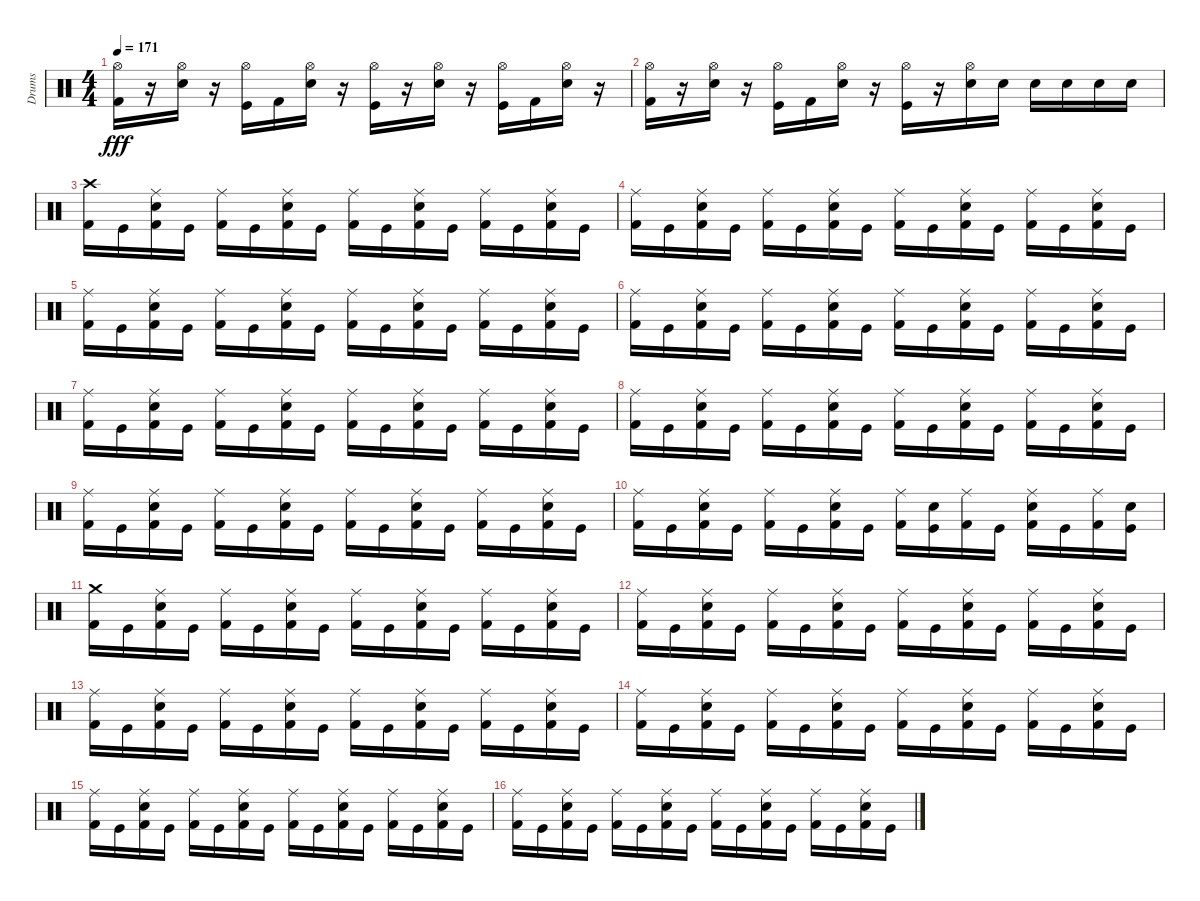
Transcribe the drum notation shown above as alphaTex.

\track ("Drums" "Drums") {instrument percussion}
\staff {score}
\articulation defaults
\ts (4 4)
\tempo 171
\clef neutral
\ks c
("Hi-Hat (open)" "Kick (hit) 2").16{dy fff} r.16 ("Hi-Hat (open)" "Electric Snare (hit)").16 r.16 ("Hi-Hat (open)" "Kick (hit)").16 "Kick (hit) 2".16 ("Hi-Hat (open)" "Electric Snare (hit)").16 r.16 ("Hi-Hat (open)" "Kick (hit)").16 r.16 ("Hi-Hat (open)" "Electric Snare (hit)").16 r.16 ("Hi-Hat (open)" "Kick (hit)").16 "Kick (hit) 2".16 ("Hi-Hat (open)" "Electric Snare (hit)").16 r.16 |
("Hi-Hat (open)" "Kick (hit) 2").16 r.16 ("Hi-Hat (open)" "Electric Snare (hit)").16 r.16 ("Hi-Hat (open)" "Kick (hit)").16 "Kick (hit) 2".16 ("Hi-Hat (open)" "Electric Snare (hit)").16 r.16 ("Hi-Hat (open)" "Kick (hit)").16 r.16 ("Hi-Hat (open)" "Electric Snare (hit)").16 "Electric Snare (hit)".16 "Electric Snare (hit)".16 "Electric Snare (hit)".16 "Electric Snare (hit)".16 "Electric Snare (hit)".16 |
("Crash high (hit)" "Kick (hit) 2").16 "Kick (hit)".16 ("Ride (middle)" "Electric Snare (hit)" "Kick (hit) 2").16 "Kick (hit)".16 ("Ride (middle)" "Kick (hit) 2").16 "Kick (hit)".16 ("Ride (middle)" "Electric Snare (hit)" "Kick (hit) 2").16 "Kick (hit)".16 ("Ride (middle)" "Kick (hit) 2").16 "Kick (hit)".16 ("Ride (middle)" "Electric Snare (hit)" "Kick (hit) 2").16 "Kick (hit)".16 ("Ride (middle)" "Kick (hit) 2").16 "Kick (hit)".16 ("Ride (middle)" "Electric Snare (hit)" "Kick (hit) 2").16 "Kick (hit)".16 |
("Ride (middle)" "Kick (hit) 2").16 "Kick (hit)".16 ("Ride (middle)" "Electric Snare (hit)" "Kick (hit) 2").16 "Kick (hit)".16 ("Ride (middle)" "Kick (hit) 2").16 "Kick (hit)".16 ("Ride (middle)" "Electric Snare (hit)" "Kick (hit) 2").16 "Kick (hit)".16 ("Ride (middle)" "Kick (hit) 2").16 "Kick (hit)".16 ("Ride (middle)" "Electric Snare (hit)" "Kick (hit) 2").16 "Kick (hit)".16 ("Ride (middle)" "Kick (hit) 2").16 "Kick (hit)".16 ("Ride (middle)" "Electric Snare (hit)" "Kick (hit) 2").16 "Kick (hit)".16 |
("Ride (middle)" "Kick (hit) 2").16 "Kick (hit)".16 ("Ride (middle)" "Electric Snare (hit)" "Kick (hit) 2").16 "Kick (hit)".16 ("Ride (middle)" "Kick (hit) 2").16 "Kick (hit)".16 ("Ride (middle)" "Electric Snare (hit)" "Kick (hit) 2").16 "Kick (hit)".16 ("Ride (middle)" "Kick (hit) 2").16 "Kick (hit)".16 ("Ride (middle)" "Electric Snare (hit)" "Kick (hit) 2").16 "Kick (hit)".16 ("Ride (middle)" "Kick (hit) 2").16 "Kick (hit)".16 ("Ride (middle)" "Electric Snare (hit)" "Kick (hit) 2").16 "Kick (hit)".16 |
("Ride (middle)" "Kick (hit) 2").16 "Kick (hit)".16 ("Ride (middle)" "Electric Snare (hit)" "Kick (hit) 2").16 "Kick (hit)".16 ("Ride (middle)" "Kick (hit) 2").16 "Kick (hit)".16 ("Ride (middle)" "Electric Snare (hit)" "Kick (hit) 2").16 "Kick (hit)".16 ("Ride (middle)" "Kick (hit) 2").16 "Kick (hit)".16 ("Ride (middle)" "Electric Snare (hit)" "Kick (hit) 2").16 "Kick (hit)".16 ("Ride (middle)" "Kick (hit) 2").16 "Kick (hit)".16 ("Ride (middle)" "Electric Snare (hit)" "Kick (hit) 2").16 "Kick (hit)".16 |
("Ride (middle)" "Kick (hit) 2").16 "Kick (hit)".16 ("Ride (middle)" "Electric Snare (hit)" "Kick (hit) 2").16 "Kick (hit)".16 ("Ride (middle)" "Kick (hit) 2").16 "Kick (hit)".16 ("Ride (middle)" "Electric Snare (hit)" "Kick (hit) 2").16 "Kick (hit)".16 ("Ride (middle)" "Kick (hit) 2").16 "Kick (hit)".16 ("Ride (middle)" "Electric Snare (hit)" "Kick (hit) 2").16 "Kick (hit)".16 ("Ride (middle)" "Kick (hit) 2").16 "Kick (hit)".16 ("Ride (middle)" "Electric Snare (hit)" "Kick (hit) 2").16 "Kick (hit)".16 |
("Ride (middle)" "Kick (hit) 2").16 "Kick (hit)".16 ("Ride (middle)" "Electric Snare (hit)" "Kick (hit) 2").16 "Kick (hit)".16 ("Ride (middle)" "Kick (hit) 2").16 "Kick (hit)".16 ("Ride (middle)" "Electric Snare (hit)" "Kick (hit) 2").16 "Kick (hit)".16 ("Ride (middle)" "Kick (hit) 2").16 "Kick (hit)".16 ("Ride (middle)" "Electric Snare (hit)" "Kick (hit) 2").16 "Kick (hit)".16 ("Ride (middle)" "Kick (hit) 2").16 "Kick (hit)".16 ("Ride (middle)" "Electric Snare (hit)" "Kick (hit) 2").16 "Kick (hit)".16 |
("Ride (middle)" "Kick (hit) 2").16 "Kick (hit)".16 ("Ride (middle)" "Electric Snare (hit)" "Kick (hit) 2").16 "Kick (hit)".16 ("Ride (middle)" "Kick (hit) 2").16 "Kick (hit)".16 ("Ride (middle)" "Electric Snare (hit)" "Kick (hit) 2").16 "Kick (hit)".16 ("Ride (middle)" "Kick (hit) 2").16 "Kick (hit)".16 ("Ride (middle)" "Electric Snare (hit)" "Kick (hit) 2").16 "Kick (hit)".16 ("Ride (middle)" "Kick (hit) 2").16 "Kick (hit)".16 ("Ride (middle)" "Electric Snare (hit)" "Kick (hit) 2").16 "Kick (hit)".16 |
("Ride (middle)" "Kick (hit) 2").16 "Kick (hit)".16 ("Ride (middle)" "Electric Snare (hit)" "Kick (hit) 2").16 "Kick (hit)".16 ("Ride (middle)" "Kick (hit) 2").16 "Kick (hit)".16 ("Ride (middle)" "Electric Snare (hit)" "Kick (hit) 2").16 "Kick (hit)".16 ("Ride (middle)" "Kick (hit) 2").16 ("Electric Snare (hit)" "Kick (hit)").16 ("Ride (middle)" "Kick (hit) 2").16 "Kick (hit)".16 ("Ride (middle)" "Electric Snare (hit)" "Kick (hit) 2").16 "Kick (hit)".16 ("Ride (middle)" "Kick (hit) 2").16 ("Electric Snare (hit)" "Kick (hit)").16 |
("Crash medium (hit)" "Kick (hit) 2").16 "Kick (hit)".16 ("Ride (middle)" "Electric Snare (hit)" "Kick (hit) 2").16 "Kick (hit)".16 ("Ride (middle)" "Kick (hit) 2").16 "Kick (hit)".16 ("Ride (middle)" "Electric Snare (hit)" "Kick (hit) 2").16 "Kick (hit)".16 ("Ride (middle)" "Kick (hit) 2").16 "Kick (hit)".16 ("Ride (middle)" "Electric Snare (hit)" "Kick (hit) 2").16 "Kick (hit)".16 ("Ride (middle)" "Kick (hit) 2").16 "Kick (hit)".16 ("Ride (middle)" "Electric Snare (hit)" "Kick (hit) 2").16 "Kick (hit)".16 |
("Ride (middle)" "Kick (hit) 2").16 "Kick (hit)".16 ("Ride (middle)" "Electric Snare (hit)" "Kick (hit) 2").16 "Kick (hit)".16 ("Ride (middle)" "Kick (hit) 2").16 "Kick (hit)".16 ("Ride (middle)" "Electric Snare (hit)" "Kick (hit) 2").16 "Kick (hit)".16 ("Ride (middle)" "Kick (hit) 2").16 "Kick (hit)".16 ("Ride (middle)" "Electric Snare (hit)" "Kick (hit) 2").16 "Kick (hit)".16 ("Ride (middle)" "Kick (hit) 2").16 "Kick (hit)".16 ("Ride (middle)" "Electric Snare (hit)" "Kick (hit) 2").16 "Kick (hit)".16 |
("Ride (middle)" "Kick (hit) 2").16 "Kick (hit)".16 ("Ride (middle)" "Electric Snare (hit)" "Kick (hit) 2").16 "Kick (hit)".16 ("Ride (middle)" "Kick (hit) 2").16 "Kick (hit)".16 ("Ride (middle)" "Electric Snare (hit)" "Kick (hit) 2").16 "Kick (hit)".16 ("Ride (middle)" "Kick (hit) 2").16 "Kick (hit)".16 ("Ride (middle)" "Electric Snare (hit)" "Kick (hit) 2").16 "Kick (hit)".16 ("Ride (middle)" "Kick (hit) 2").16 "Kick (hit)".16 ("Ride (middle)" "Electric Snare (hit)" "Kick (hit) 2").16 "Kick (hit)".16 |
("Ride (middle)" "Kick (hit) 2").16 "Kick (hit)".16 ("Ride (middle)" "Electric Snare (hit)" "Kick (hit) 2").16 "Kick (hit)".16 ("Ride (middle)" "Kick (hit) 2").16 "Kick (hit)".16 ("Ride (middle)" "Electric Snare (hit)" "Kick (hit) 2").16 "Kick (hit)".16 ("Ride (middle)" "Kick (hit) 2").16 "Kick (hit)".16 ("Ride (middle)" "Electric Snare (hit)" "Kick (hit) 2").16 "Kick (hit)".16 ("Ride (middle)" "Kick (hit) 2").16 "Kick (hit)".16 ("Ride (middle)" "Electric Snare (hit)" "Kick (hit) 2").16 "Kick (hit)".16 |
("Ride (middle)" "Kick (hit) 2").16 "Kick (hit)".16 ("Ride (middle)" "Electric Snare (hit)" "Kick (hit) 2").16 "Kick (hit)".16 ("Ride (middle)" "Kick (hit) 2").16 "Kick (hit)".16 ("Ride (middle)" "Electric Snare (hit)" "Kick (hit) 2").16 "Kick (hit)".16 ("Ride (middle)" "Kick (hit) 2").16 "Kick (hit)".16 ("Ride (middle)" "Electric Snare (hit)" "Kick (hit) 2").16 "Kick (hit)".16 ("Ride (middle)" "Kick (hit) 2").16 "Kick (hit)".16 ("Ride (middle)" "Electric Snare (hit)" "Kick (hit) 2").16 "Kick (hit)".16 |
("Ride (middle)" "Kick (hit) 2").16 "Kick (hit)".16 ("Ride (middle)" "Electric Snare (hit)" "Kick (hit) 2").16 "Kick (hit)".16 ("Ride (middle)" "Kick (hit) 2").16 "Kick (hit)".16 ("Ride (middle)" "Electric Snare (hit)" "Kick (hit) 2").16 "Kick (hit)".16 ("Ride (middle)" "Kick (hit) 2").16 "Kick (hit)".16 ("Ride (middle)" "Electric Snare (hit)" "Kick (hit) 2").16 "Kick (hit)".16 ("Ride (middle)" "Kick (hit) 2").16 "Kick (hit)".16 ("Ride (middle)" "Electric Snare (hit)" "Kick (hit) 2").16 "Kick (hit)".16
